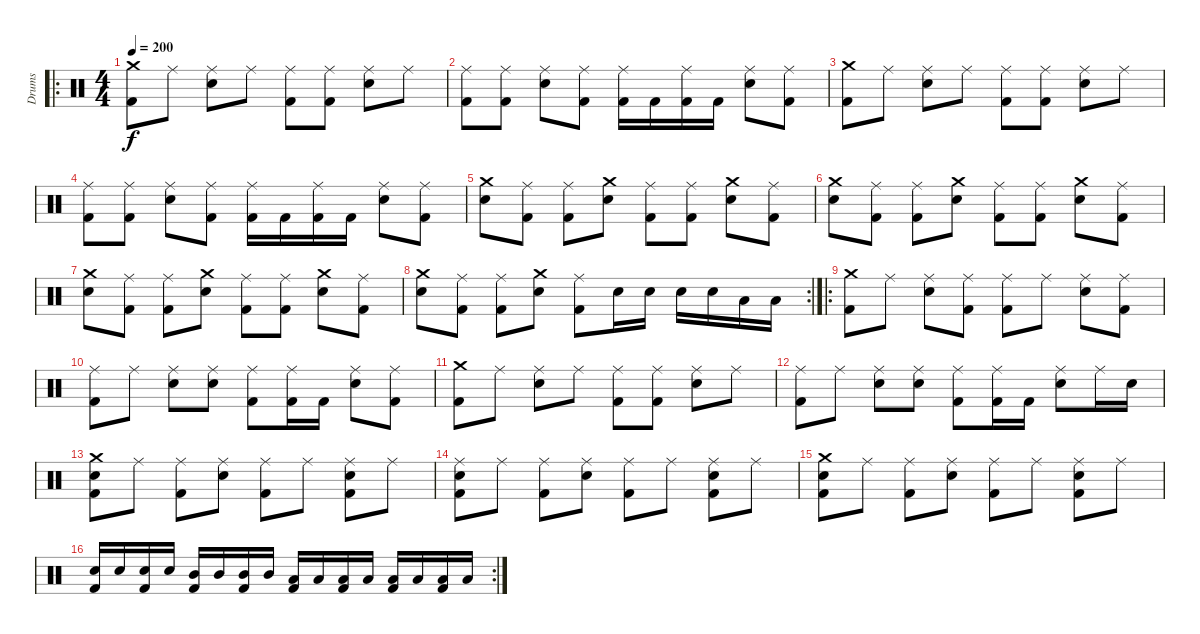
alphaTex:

\track ("Drums" "Drums") {instrument percussion}
\staff {score}
\articulation defaults
\ro
\ts (4 4)
\tempo 200
\clef neutral
\ks c
("Crash medium (hit)" "Kick (hit) 2").8{dy f} "Ride (middle)".8 ("Ride (middle)" "Snare (hit) 2").8 "Ride (middle)".8 ("Ride (middle)" "Kick (hit) 2").8 ("Ride (middle)" "Kick (hit) 2").8 ("Ride (middle)" "Snare (hit) 2").8 "Ride (middle)".8 |
("Ride (middle)" "Kick (hit) 2").8 ("Ride (middle)" "Kick (hit) 2").8 ("Ride (middle)" "Snare (hit) 2").8 ("Ride (middle)" "Kick (hit) 2").8 ("Ride (middle)" "Kick (hit) 2").16 "Kick (hit) 2".16 ("Ride (middle)" "Kick (hit) 2").16 "Kick (hit) 2".16 ("Ride (middle)" "Snare (hit) 2").8 ("Ride (middle)" "Kick (hit) 2").8 |
("Crash medium (hit)" "Kick (hit) 2").8 "Ride (middle)".8 ("Ride (middle)" "Snare (hit) 2").8 "Ride (middle)".8 ("Ride (middle)" "Kick (hit) 2").8 ("Ride (middle)" "Kick (hit) 2").8 ("Ride (middle)" "Snare (hit) 2").8 "Ride (middle)".8 |
("Ride (middle)" "Kick (hit) 2").8 ("Ride (middle)" "Kick (hit) 2").8 ("Ride (middle)" "Snare (hit) 2").8 ("Ride (middle)" "Kick (hit) 2").8 ("Ride (middle)" "Kick (hit) 2").16 "Kick (hit) 2".16 ("Ride (middle)" "Kick (hit) 2").16 "Kick (hit) 2".16 ("Ride (middle)" "Snare (hit) 2").8 ("Ride (middle)" "Kick (hit) 2").8 |
("Crash medium (hit)" "Snare (hit) 2").8 ("Ride (middle)" "Kick (hit) 2").8 ("Ride (middle)" "Kick (hit) 2").8 ("Crash medium (hit)" "Snare (hit) 2").8 ("Ride (middle)" "Kick (hit) 2").8 ("Ride (middle)" "Kick (hit) 2").8 ("Crash medium (hit)" "Snare (hit) 2").8 ("Ride (middle)" "Kick (hit) 2").8 |
("Crash medium (hit)" "Snare (hit) 2").8 ("Ride (middle)" "Kick (hit) 2").8 ("Ride (middle)" "Kick (hit) 2").8 ("Crash medium (hit)" "Snare (hit) 2").8 ("Ride (middle)" "Kick (hit) 2").8 ("Ride (middle)" "Kick (hit) 2").8 ("Crash medium (hit)" "Snare (hit) 2").8 ("Ride (middle)" "Kick (hit) 2").8 |
("Crash medium (hit)" "Snare (hit) 2").8 ("Ride (middle)" "Kick (hit) 2").8 ("Ride (middle)" "Kick (hit) 2").8 ("Crash medium (hit)" "Snare (hit) 2").8 ("Ride (middle)" "Kick (hit) 2").8 ("Ride (middle)" "Kick (hit) 2").8 ("Crash medium (hit)" "Snare (hit) 2").8 ("Ride (middle)" "Kick (hit) 2").8 |
\rc 2
("Crash medium (hit)" "Snare (hit) 2").8 ("Ride (middle)" "Kick (hit) 2").8 ("Ride (middle)" "Kick (hit) 2").8 ("Crash medium (hit)" "Snare (hit) 2").8 ("Ride (middle)" "Kick (hit) 2").8 "Snare (hit) 2".16 "Snare (hit) 2".16 "Snare (hit) 2".16 "Snare (hit) 2".16 "Low Tom (hit)".16 "Low Tom (hit)".16 |
\ro
("Crash medium (hit)" "Kick (hit) 2").8 "Ride (middle)".8 ("Ride (middle)" "Snare (hit) 2").8 ("Ride (middle)" "Kick (hit) 2").8 ("Ride (middle)" "Kick (hit) 2").8 "Ride (middle)".8 ("Ride (middle)" "Snare (hit) 2").8 ("Ride (middle)" "Kick (hit) 2").8 |
("Ride (middle)" "Kick (hit) 2").8 "Ride (middle)".8 ("Ride (middle)" "Snare (hit) 2").8 ("Ride (middle)" "Snare (hit) 2").8 ("Ride (middle)" "Kick (hit) 2").8 ("Ride (middle)" "Kick (hit) 2").16 "Kick (hit) 2".16 ("Ride (middle)" "Snare (hit) 2").8 ("Ride (middle)" "Kick (hit) 2").8 |
("Crash medium (hit)" "Kick (hit) 2").8 "Ride (middle)".8 ("Ride (middle)" "Snare (hit) 2").8 "Ride (middle)".8 ("Ride (middle)" "Kick (hit) 2").8 ("Ride (middle)" "Kick (hit) 2").8 ("Ride (middle)" "Snare (hit) 2").8 "Ride (middle)".8 |
("Ride (middle)" "Kick (hit) 2").8 "Ride (middle)".8 ("Ride (middle)" "Snare (hit) 2").8 ("Ride (middle)" "Snare (hit) 2").8 ("Ride (middle)" "Kick (hit) 2").8 ("Ride (middle)" "Kick (hit) 2").16 "Kick (hit) 2".16 ("Ride (middle)" "Snare (hit) 2").8 "Ride (middle)".16 "Snare (hit) 2".16 |
("Crash medium (hit)" "Snare (hit) 2" "Kick (hit) 2").8 "Ride (middle)".8 ("Ride (middle)" "Kick (hit) 2").8 ("Ride (middle)" "Snare (hit) 2").8 ("Ride (middle)" "Kick (hit) 2").8 "Ride (middle)".8 ("Ride (middle)" "Snare (hit) 2" "Kick (hit) 2").8 "Ride (middle)".8 |
("Ride (middle)" "Snare (hit) 2" "Kick (hit) 2").8 "Ride (middle)".8 ("Ride (middle)" "Kick (hit) 2").8 ("Ride (middle)" "Snare (hit) 2").8 ("Ride (middle)" "Kick (hit) 2").8 "Ride (middle)".8 ("Ride (middle)" "Snare (hit) 2" "Kick (hit) 2").8 "Ride (middle)".8 |
("Crash medium (hit)" "Snare (hit) 2" "Kick (hit) 2").8 "Ride (middle)".8 ("Ride (middle)" "Kick (hit) 2").8 ("Ride (middle)" "Snare (hit) 2").8 ("Ride (middle)" "Kick (hit) 2").8 "Ride (middle)".8 ("Ride (middle)" "Snare (hit) 2" "Kick (hit) 2").8 "Ride (middle)".8 |
\rc 2
("Snare (hit) 2" "Kick (hit) 2").16 "Snare (hit) 2".16 ("Snare (hit) 2" "Kick (hit) 2").16 "Snare (hit) 2".16 ("Mid Tom (hit)" "Kick (hit) 2").16 "Mid Tom (hit)".16 ("Mid Tom (hit)" "Kick (hit) 2").16 "Mid Tom (hit)".16 ("Low Tom (hit)" "Kick (hit) 2").16 "Low Tom (hit)".16 ("Low Tom (hit)" "Kick (hit) 2").16 "Low Tom (hit)".16 ("Low Floor Tom (hit)" "Kick (hit) 2").16 "Low Floor Tom (hit)".16 ("Low Floor Tom (hit)" "Kick (hit) 2").16 "Low Floor Tom (hit)".16
